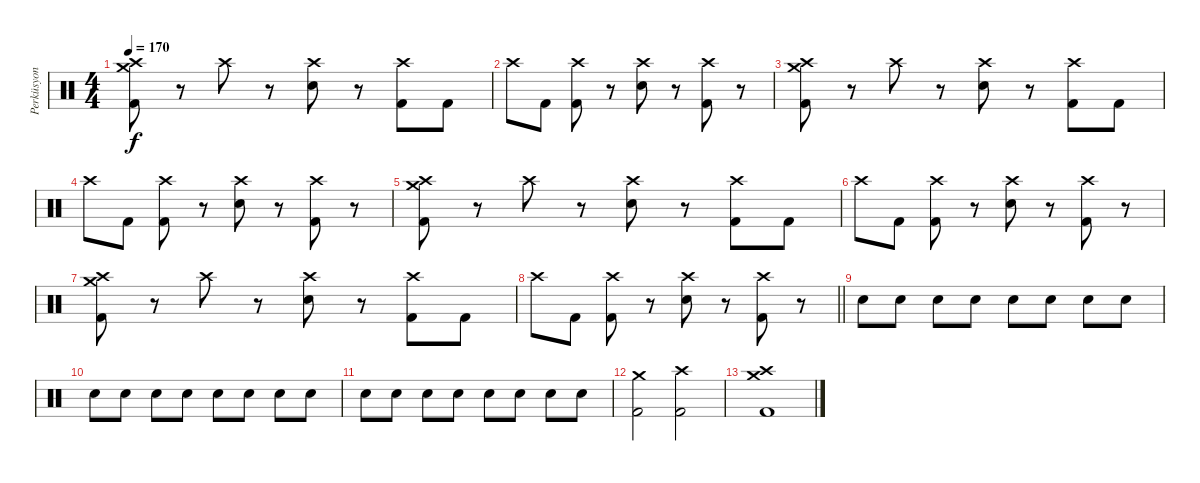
\track ("Perküsyon" "Perküsyon") {instrument percussion}
\staff {score}
\articulation defaults
\ts (4 4)
\tempo 170
\clef neutral
\ks c
("Crash medium (hit)" "Crash high (hit)" "Kick (hit) 2").8{dy f} r.8 "Crash high (hit)".8 r.8 ("Crash high (hit)" "Snare (hit) 2").8 r.8 ("Crash high (hit)" "Kick (hit) 2").8 "Kick (hit) 2".8 |
"Crash high (hit)".8 "Kick (hit) 2".8 ("Crash high (hit)" "Kick (hit) 2").8 r.8 ("Crash high (hit)" "Snare (hit) 2").8 r.8 ("Crash high (hit)" "Kick (hit) 2").8 r.8 |
("Crash medium (hit)" "Crash high (hit)" "Kick (hit) 2").8 r.8 "Crash high (hit)".8 r.8 ("Crash high (hit)" "Snare (hit) 2").8 r.8 ("Crash high (hit)" "Kick (hit) 2").8 "Kick (hit) 2".8 |
"Crash high (hit)".8 "Kick (hit) 2".8 ("Crash high (hit)" "Kick (hit) 2").8 r.8 ("Crash high (hit)" "Snare (hit) 2").8 r.8 ("Crash high (hit)" "Kick (hit) 2").8 r.8 |
("Crash medium (hit)" "Crash high (hit)" "Kick (hit) 2").8 r.8 "Crash high (hit)".8 r.8 ("Crash high (hit)" "Snare (hit) 2").8 r.8 ("Crash high (hit)" "Kick (hit) 2").8 "Kick (hit) 2".8 |
"Crash high (hit)".8 "Kick (hit) 2".8 ("Crash high (hit)" "Kick (hit) 2").8 r.8 ("Crash high (hit)" "Snare (hit) 2").8 r.8 ("Crash high (hit)" "Kick (hit) 2").8 r.8 |
("Crash medium (hit)" "Crash high (hit)" "Kick (hit) 2").8 r.8 "Crash high (hit)".8 r.8 ("Crash high (hit)" "Snare (hit) 2").8 r.8 ("Crash high (hit)" "Kick (hit) 2").8 "Kick (hit) 2".8 |
\barLineRight lightlight "Crash high (hit)".8 "Kick (hit) 2".8
("Crash high (hit)" "Kick (hit) 2").8 r.8 ("Crash high (hit)" "Snare (hit) 2").8 r.8 ("Crash high (hit)" "Kick (hit) 2").8 r.8 |
\section ("" "")
"Snare (hit) 2".8 "Snare (hit) 2".8 "Snare (hit) 2".8 "Snare (hit) 2".8 "Snare (hit) 2".8 "Snare (hit) 2".8 "Snare (hit) 2".8 "Snare (hit) 2".8 |
"Snare (hit) 2".8 "Snare (hit) 2".8 "Snare (hit) 2".8 "Snare (hit) 2".8 "Snare (hit) 2".8 "Snare (hit) 2".8 "Snare (hit) 2".8 "Snare (hit) 2".8 |
"Snare (hit) 2".8 "Snare (hit) 2".8 "Snare (hit) 2".8 "Snare (hit) 2".8 "Snare (hit) 2".8 "Snare (hit) 2".8 "Snare (hit) 2".8 "Snare (hit) 2".8 |
("Crash medium (hit)" "Kick (hit) 2").2 ("Crash high (hit)" "Kick (hit) 2").2 |
("Crash high (hit)" "Crash medium (hit)" "Kick (hit) 2").1
